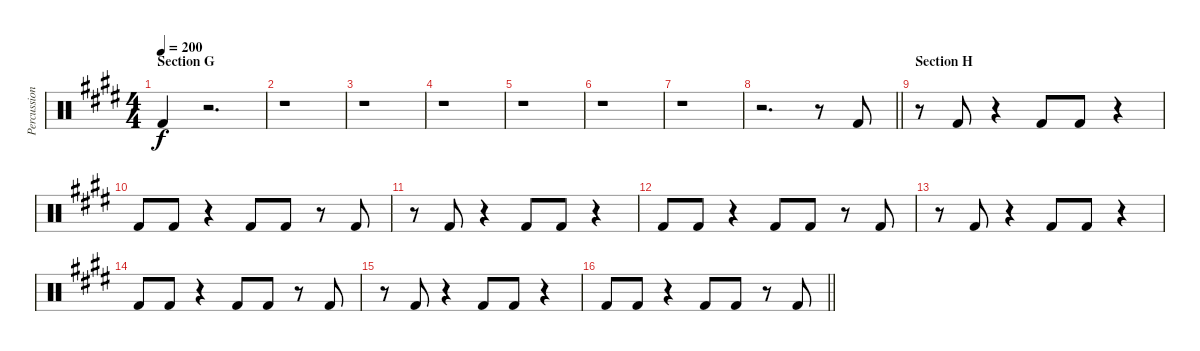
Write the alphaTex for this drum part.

\track ("Percussion - bass drum" "Percussion") {instrument percussion}
\staff {score}
\articulation defaults
\ts (4 4)
\section ("" "Section G")
\tempo 200
\clef neutral
\ks e "Kick (hit) 2".4{dy f}
r.2{d} |
r.1 |
r.1 |
r.1 |
r.1 |
r.1 |
r.1 |
\barLineRight lightlight
r.2{d} r.8 "Kick (hit) 2".8 |
\section ("" "Section H")
r.8 "Kick (hit) 2".8 r.4 "Kick (hit) 2".8 "Kick (hit) 2".8 r.4 |
"Kick (hit) 2".8 "Kick (hit) 2".8 r.4 "Kick (hit) 2".8 "Kick (hit) 2".8 r.8 "Kick (hit) 2".8 |
r.8 "Kick (hit) 2".8 r.4 "Kick (hit) 2".8 "Kick (hit) 2".8 r.4 |
"Kick (hit) 2".8 "Kick (hit) 2".8 r.4 "Kick (hit) 2".8 "Kick (hit) 2".8 r.8 "Kick (hit) 2".8 |
r.8 "Kick (hit) 2".8 r.4 "Kick (hit) 2".8 "Kick (hit) 2".8 r.4 |
"Kick (hit) 2".8 "Kick (hit) 2".8 r.4 "Kick (hit) 2".8 "Kick (hit) 2".8 r.8 "Kick (hit) 2".8 |
r.8 "Kick (hit) 2".8 r.4 "Kick (hit) 2".8 "Kick (hit) 2".8 r.4 |
\barLineRight lightlight "Kick (hit) 2".8 "Kick (hit) 2".8
r.4 "Kick (hit) 2".8 "Kick (hit) 2".8 r.8 "Kick (hit) 2".8
